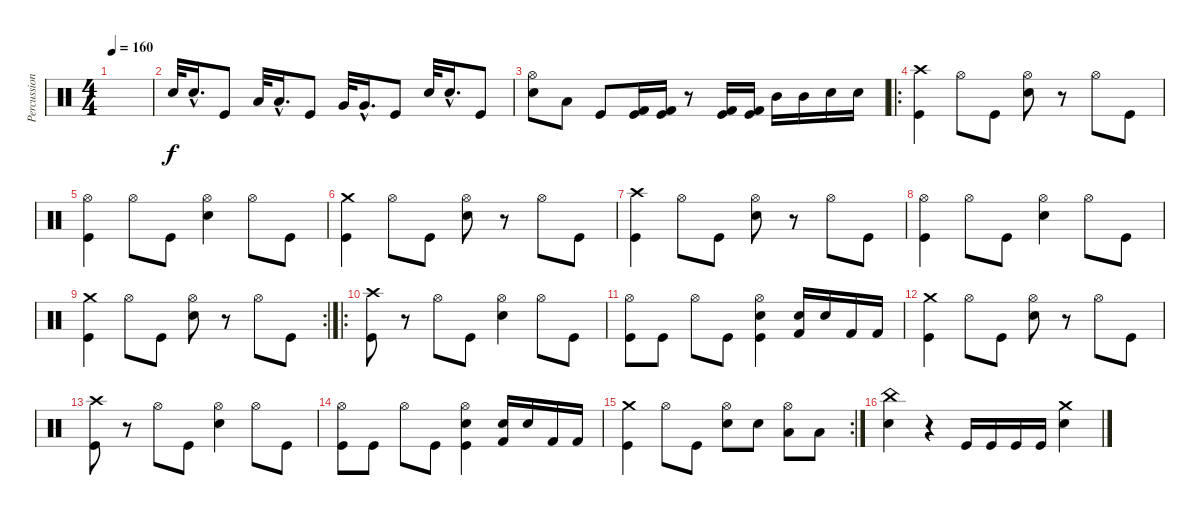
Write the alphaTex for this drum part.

\track ("Percussion" "Percussion") {instrument percussion}
\staff {score}
\articulation defaults
\ts (4 4)
\tempo 160
\clef neutral
\ks c
|
"Electric Snare (hit)".32 "Electric Snare (hit)"{hac}.16{d} "Kick (hit)".8 "Low Tom (hit)".32 "Low Tom (hit)"{hac}.16{d} "Kick (hit)".8 "Very Low Tom (hit)".32 "Very Low Tom (hit)"{hac}.16{d} "Kick (hit)".8 "Electric Snare (hit)".32 "Electric Snare (hit)"{hac}.16{d} "Kick (hit)".8 |
("Hi-Hat (open)" "Electric Snare (hit)").8 "Low Tom (hit)".8 "Kick (hit)".8 ("Kick (hit) 2" "Kick (hit)").16 ("Kick (hit) 2" "Kick (hit)").16 r.8 ("Kick (hit) 2" "Kick (hit)").16 ("Kick (hit) 2" "Kick (hit)").16 "Mid Tom (hit)".16 "Mid Tom (hit)".16 "Electric Snare (hit)".16 "Electric Snare (hit)".16 |
\ro
("Crash high (hit)" "Kick (hit)").4 "Hi-Hat (open)".8 "Kick (hit)".8 ("Hi-Hat (open)" "Electric Snare (hit)").8 r.8 "Hi-Hat (open)".8 "Kick (hit)".8 |
("Hi-Hat (open)" "Kick (hit)").4 "Hi-Hat (open)".8 "Kick (hit)".8 ("Hi-Hat (open)" "Electric Snare (hit)").4 "Hi-Hat (open)".8 "Kick (hit)".8 |
("Crash medium (hit)" "Kick (hit)").4 "Hi-Hat (open)".8 "Kick (hit)".8 ("Hi-Hat (open)" "Electric Snare (hit)").8 r.8 "Hi-Hat (open)".8 "Kick (hit)".8 |
("Crash high (hit)" "Kick (hit)").4 "Hi-Hat (open)".8 "Kick (hit)".8 ("Hi-Hat (open)" "Electric Snare (hit)").8 r.8 "Hi-Hat (open)".8 "Kick (hit)".8 |
("Hi-Hat (open)" "Kick (hit)").4 "Hi-Hat (open)".8 "Kick (hit)".8 ("Hi-Hat (open)" "Electric Snare (hit)").4 "Hi-Hat (open)".8 "Kick (hit)".8 |
\rc 2
("Crash medium (hit)" "Kick (hit)").4 "Hi-Hat (open)".8 "Kick (hit)".8 ("Hi-Hat (open)" "Electric Snare (hit)").8 r.8 "Hi-Hat (open)".8 "Kick (hit)".8 |
\ro
("Crash high (hit)" "Kick (hit)").8 r.8 "Hi-Hat (open)".8 "Kick (hit)".8 ("Electric Snare (hit)" "Hi-Hat (open)").4 "Hi-Hat (open)".8 "Kick (hit)".8 |
("Hi-Hat (open)" "Kick (hit)").8 "Kick (hit)".8 "Hi-Hat (open)".8 "Kick (hit)".8 ("Hi-Hat (open)" "Electric Snare (hit)" "Kick (hit)").4 ("Kick (hit) 2" "Electric Snare (hit)").16 "Electric Snare (hit)".16 "Kick (hit) 2".16 "Kick (hit) 2".16 |
("Crash medium (hit)" "Kick (hit)").4 "Hi-Hat (open)".8 "Kick (hit)".8 ("Hi-Hat (open)" "Electric Snare (hit)").8 r.8 "Hi-Hat (open)".8 "Kick (hit)".8 |
("Crash high (hit)" "Kick (hit)").8 r.8 "Hi-Hat (open)".8 "Kick (hit)".8 ("Electric Snare (hit)" "Hi-Hat (open)").4 "Hi-Hat (open)".8 "Kick (hit)".8 |
("Hi-Hat (open)" "Kick (hit)").8 "Kick (hit)".8 "Hi-Hat (open)".8 "Kick (hit)".8 ("Hi-Hat (open)" "Electric Snare (hit)" "Kick (hit)").4 ("Kick (hit) 2" "Electric Snare (hit)").16 "Electric Snare (hit)".16 "Kick (hit) 2".16 "Kick (hit) 2".16 |
\rc 2
("Crash medium (hit)" "Kick (hit)").4 "Hi-Hat (open)".8 "Kick (hit)".8 ("Hi-Hat (open)" "Electric Snare (hit)").8 "Electric Snare (hit)".8 ("Hi-Hat (open)" "Low Tom (hit)").8 "Low Tom (hit)".8 |
("China (hit)" "Electric Snare (hit)").4 r.4 "Kick (hit)".16 "Kick (hit)".16 "Kick (hit)".16 "Kick (hit)".16 ("Crash medium (hit)" "Electric Snare (hit)").4
